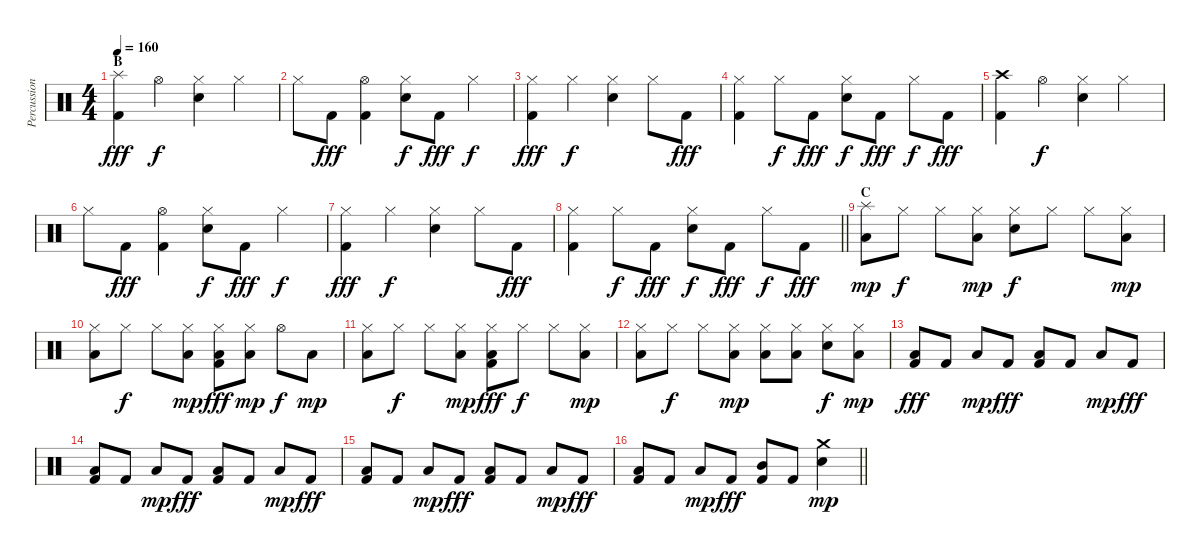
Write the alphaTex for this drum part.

\track ("Percussion" "Percussion") {instrument percussion}
\staff {score}
\articulation defaults
\ts (4 4)
\section ("" "B")
\tempo 160
\clef neutral
\ks c
("Splash (hit)" "Kick (hit) 2").4{dy fff} "Hi-Hat (open)".4{dy f} ("Hi-Hat (closed)" "Electric Snare (hit)").4 "Hi-Hat (closed)".4 |
"Hi-Hat (closed)".8 "Kick (hit) 2".8{dy fff} ("Hi-Hat (open)" "Kick (hit) 2").4 ("Hi-Hat (closed)" "Electric Snare (hit)").8{dy f} "Kick (hit) 2".8{dy fff} "Hi-Hat (closed)".4{dy f} |
("Hi-Hat (closed)" "Kick (hit) 2").4{dy fff} "Hi-Hat (closed)".4{dy f} ("Hi-Hat (closed)" "Electric Snare (hit)").4 "Hi-Hat (closed)".8 "Kick (hit) 2".8{dy fff} |
("Hi-Hat (closed)" "Kick (hit) 2").4 "Hi-Hat (closed)".8{dy f} "Kick (hit) 2".8{dy fff} ("Hi-Hat (closed)" "Electric Snare (hit)").8{dy f} "Kick (hit) 2".8{dy fff} "Hi-Hat (closed)".8{dy f} "Kick (hit) 2".8{dy fff} |
("Crash high (hit)" "Kick (hit) 2").4 "Hi-Hat (open)".4{dy f} ("Hi-Hat (closed)" "Electric Snare (hit)").4 "Hi-Hat (closed)".4 |
"Hi-Hat (closed)".8 "Kick (hit) 2".8{dy fff} ("Hi-Hat (open)" "Kick (hit) 2").4 ("Hi-Hat (closed)" "Electric Snare (hit)").8{dy f} "Kick (hit) 2".8{dy fff} "Hi-Hat (closed)".4{dy f} |
("Hi-Hat (closed)" "Kick (hit) 2").4{dy fff} "Hi-Hat (closed)".4{dy f} ("Hi-Hat (closed)" "Electric Snare (hit)").4 "Hi-Hat (closed)".8 "Kick (hit) 2".8{dy fff} |
\barLineRight lightlight
("Hi-Hat (closed)" "Kick (hit) 2").4 "Hi-Hat (closed)".8{dy f} "Kick (hit) 2".8{dy fff} ("Hi-Hat (closed)" "Electric Snare (hit)").8{dy f} "Kick (hit) 2".8{dy fff} "Hi-Hat (closed)".8{dy f} "Kick (hit) 2".8{dy fff} |
\section ("" "C")
("Splash (hit)" "Low Floor Tom (hit)").8{dy mp} "Hi-Hat (closed)".8{dy f} "Hi-Hat (closed)".8 ("Hi-Hat (closed)" "Low Floor Tom (hit)").8{dy mp} ("Hi-Hat (closed)" "Electric Snare (hit)").8{dy f} "Hi-Hat (closed)".8 "Hi-Hat (closed)".8 ("Hi-Hat (closed)" "Low Floor Tom (hit)").8{dy mp} |
("Hi-Hat (closed)" "Low Floor Tom (hit)").8 "Hi-Hat (closed)".8{dy f} "Hi-Hat (closed)".8 ("Hi-Hat (closed)" "Low Floor Tom (hit)").8{dy mp} ("Hi-Hat (closed)" "Low Floor Tom (hit)" "Kick (hit) 2").8{dy fff} ("Hi-Hat (closed)" "Low Floor Tom (hit)").8{dy mp} "Hi-Hat (open)".8{dy f} "Low Floor Tom (hit)".8{dy mp} |
("Hi-Hat (closed)" "Low Floor Tom (hit)").8 "Hi-Hat (closed)".8{dy f} "Hi-Hat (closed)".8 ("Hi-Hat (closed)" "Low Floor Tom (hit)").8{dy mp} ("Hi-Hat (closed)" "Low Floor Tom (hit)" "Kick (hit) 2").8{dy fff} "Hi-Hat (closed)".8{dy f} "Hi-Hat (closed)".8 ("Hi-Hat (closed)" "Low Floor Tom (hit)").8{dy mp} |
("Hi-Hat (closed)" "Low Floor Tom (hit)").8 "Hi-Hat (closed)".8{dy f} "Hi-Hat (closed)".8 ("Hi-Hat (closed)" "Low Floor Tom (hit)").8{dy mp} ("Hi-Hat (closed)" "Low Floor Tom (hit)").8 ("Hi-Hat (closed)" "Low Floor Tom (hit)").8 ("Hi-Hat (closed)" "Electric Snare (hit)").8{dy f} ("Hi-Hat (closed)" "Low Floor Tom (hit)").8{dy mp} |
("Low Floor Tom (hit)" "Kick (hit) 2").8{dy fff} "Kick (hit) 2".8 "Low Floor Tom (hit)".8{dy mp} "Kick (hit) 2".8{dy fff} ("Low Floor Tom (hit)" "Kick (hit) 2").8 "Kick (hit) 2".8 "Low Floor Tom (hit)".8{dy mp} "Kick (hit) 2".8{dy fff} |
("Low Floor Tom (hit)" "Kick (hit) 2").8 "Kick (hit) 2".8 "Low Floor Tom (hit)".8{dy mp} "Kick (hit) 2".8{dy fff} ("Low Floor Tom (hit)" "Kick (hit) 2").8 "Kick (hit) 2".8 "Low Floor Tom (hit)".8{dy mp} "Kick (hit) 2".8{dy fff} |
("Low Floor Tom (hit)" "Kick (hit) 2").8 "Kick (hit) 2".8 "Low Floor Tom (hit)".8{dy mp} "Kick (hit) 2".8{dy fff} ("Low Floor Tom (hit)" "Kick (hit) 2").8 "Kick (hit) 2".8 "Low Floor Tom (hit)".8{dy mp} "Kick (hit) 2".8{dy fff} |
\barLineRight lightlight
("Low Floor Tom (hit)" "Kick (hit) 2").8 "Kick (hit) 2".8 "Low Floor Tom (hit)".8{dy mp} "Kick (hit) 2".8{dy fff} ("Mid Tom (hit)" "Kick (hit) 2").8 "Kick (hit) 2".8 ("Crash medium (hit)" "Electric Snare (hit)").4{dy mp}
